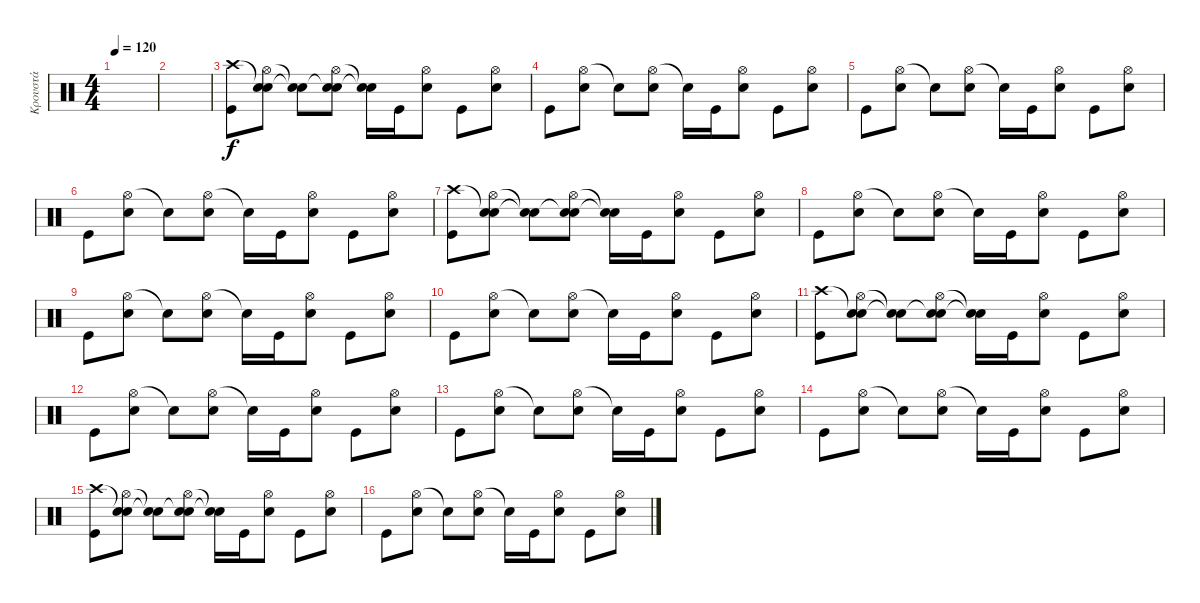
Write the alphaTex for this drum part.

\track ("Κρουστά" "Κρουστά") {instrument percussion}
\staff {score}
\articulation defaults
\ts (4 4)
\tempo 120
\clef neutral
\ks c
|
|
("Crash high (hit)" "Kick (hit)").8 ("Snare (hit)"{t} "Hi-Hat (open)" "Snare (hit) 2").8 ("Snare (hit)"{t} "Snare (hit)"{t}).8 ("Snare (hit)"{t} "Hi-Hat (open)" "Snare (hit) 2").8 ("Snare (hit)"{t} "Snare (hit)"{t}).16 "Kick (hit)".16 ("Hi-Hat (open)" "Snare (hit) 2").8 "Kick (hit)".8 ("Hi-Hat (open)" "Snare (hit) 2").8 |
"Kick (hit)".8 ("Hi-Hat (open)" "Snare (hit) 2").8 "Snare (hit)"{t}.8 ("Hi-Hat (open)" "Snare (hit) 2").8 "Snare (hit)"{t}.16 "Kick (hit)".16 ("Hi-Hat (open)" "Snare (hit) 2").8 "Kick (hit)".8 ("Hi-Hat (open)" "Snare (hit) 2").8 |
"Kick (hit)".8 ("Hi-Hat (open)" "Snare (hit) 2").8 "Snare (hit)"{t}.8 ("Hi-Hat (open)" "Snare (hit) 2").8 "Snare (hit)"{t}.16 "Kick (hit)".16 ("Hi-Hat (open)" "Snare (hit) 2").8 "Kick (hit)".8 ("Hi-Hat (open)" "Snare (hit) 2").8 |
"Kick (hit)".8 ("Hi-Hat (open)" "Snare (hit) 2").8 "Snare (hit)"{t}.8 ("Hi-Hat (open)" "Snare (hit) 2").8 "Snare (hit)"{t}.16 "Kick (hit)".16 ("Hi-Hat (open)" "Snare (hit) 2").8 "Kick (hit)".8 ("Hi-Hat (open)" "Snare (hit) 2").8 |
("Crash high (hit)" "Kick (hit)").8 ("Snare (hit)"{t} "Hi-Hat (open)" "Snare (hit) 2").8 ("Snare (hit)"{t} "Snare (hit)"{t}).8 ("Snare (hit)"{t} "Hi-Hat (open)" "Snare (hit) 2").8 ("Snare (hit)"{t} "Snare (hit)"{t}).16 "Kick (hit)".16 ("Hi-Hat (open)" "Snare (hit) 2").8 "Kick (hit)".8 ("Hi-Hat (open)" "Snare (hit) 2").8 |
"Kick (hit)".8 ("Hi-Hat (open)" "Snare (hit) 2").8 "Snare (hit)"{t}.8 ("Hi-Hat (open)" "Snare (hit) 2").8 "Snare (hit)"{t}.16 "Kick (hit)".16 ("Hi-Hat (open)" "Snare (hit) 2").8 "Kick (hit)".8 ("Hi-Hat (open)" "Snare (hit) 2").8 |
"Kick (hit)".8 ("Hi-Hat (open)" "Snare (hit) 2").8 "Snare (hit)"{t}.8 ("Hi-Hat (open)" "Snare (hit) 2").8 "Snare (hit)"{t}.16 "Kick (hit)".16 ("Hi-Hat (open)" "Snare (hit) 2").8 "Kick (hit)".8 ("Hi-Hat (open)" "Snare (hit) 2").8 |
"Kick (hit)".8 ("Hi-Hat (open)" "Snare (hit) 2").8 "Snare (hit)"{t}.8 ("Hi-Hat (open)" "Snare (hit) 2").8 "Snare (hit)"{t}.16 "Kick (hit)".16 ("Hi-Hat (open)" "Snare (hit) 2").8 "Kick (hit)".8 ("Hi-Hat (open)" "Snare (hit) 2").8 |
("Crash high (hit)" "Kick (hit)").8 ("Snare (hit)"{t} "Hi-Hat (open)" "Snare (hit) 2").8 ("Snare (hit)"{t} "Snare (hit)"{t}).8 ("Snare (hit)"{t} "Hi-Hat (open)" "Snare (hit) 2").8 ("Snare (hit)"{t} "Snare (hit)"{t}).16 "Kick (hit)".16 ("Hi-Hat (open)" "Snare (hit) 2").8 "Kick (hit)".8 ("Hi-Hat (open)" "Snare (hit) 2").8 |
"Kick (hit)".8 ("Hi-Hat (open)" "Snare (hit) 2").8 "Snare (hit)"{t}.8 ("Hi-Hat (open)" "Snare (hit) 2").8 "Snare (hit)"{t}.16 "Kick (hit)".16 ("Hi-Hat (open)" "Snare (hit) 2").8 "Kick (hit)".8 ("Hi-Hat (open)" "Snare (hit) 2").8 |
"Kick (hit)".8 ("Hi-Hat (open)" "Snare (hit) 2").8 "Snare (hit)"{t}.8 ("Hi-Hat (open)" "Snare (hit) 2").8 "Snare (hit)"{t}.16 "Kick (hit)".16 ("Hi-Hat (open)" "Snare (hit) 2").8 "Kick (hit)".8 ("Hi-Hat (open)" "Snare (hit) 2").8 |
"Kick (hit)".8 ("Hi-Hat (open)" "Snare (hit) 2").8 "Snare (hit)"{t}.8 ("Hi-Hat (open)" "Snare (hit) 2").8 "Snare (hit)"{t}.16 "Kick (hit)".16 ("Hi-Hat (open)" "Snare (hit) 2").8 "Kick (hit)".8 ("Hi-Hat (open)" "Snare (hit) 2").8 |
("Crash high (hit)" "Kick (hit)").8 ("Snare (hit)"{t} "Hi-Hat (open)" "Snare (hit) 2").8 ("Snare (hit)"{t} "Snare (hit)"{t}).8 ("Snare (hit)"{t} "Hi-Hat (open)" "Snare (hit) 2").8 ("Snare (hit)"{t} "Snare (hit)"{t}).16 "Kick (hit)".16 ("Hi-Hat (open)" "Snare (hit) 2").8 "Kick (hit)".8 ("Hi-Hat (open)" "Snare (hit) 2").8 |
"Kick (hit)".8 ("Hi-Hat (open)" "Snare (hit) 2").8 "Snare (hit)"{t}.8 ("Hi-Hat (open)" "Snare (hit) 2").8 "Snare (hit)"{t}.16 "Kick (hit)".16 ("Hi-Hat (open)" "Snare (hit) 2").8 "Kick (hit)".8 ("Hi-Hat (open)" "Snare (hit) 2").8
